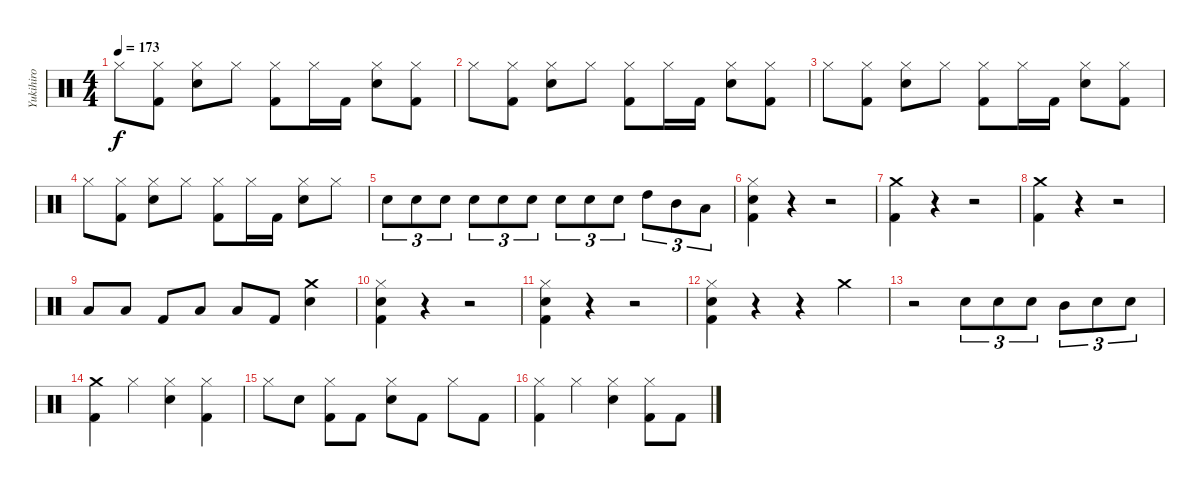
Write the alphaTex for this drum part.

\track ("Yukihiro" "Yukihiro") {instrument percussion}
\staff {score}
\articulation defaults
\ts (4 4)
\tempo 173
\clef neutral
\ks c "Hi-Hat (closed)".8{dy f}
("Hi-Hat (closed)" "Kick (hit) 2").8 ("Hi-Hat (closed)" "Snare (hit) 2").8 "Hi-Hat (closed)".8 ("Hi-Hat (closed)" "Kick (hit) 2").8 "Hi-Hat (closed)".16 "Kick (hit) 2".16 ("Hi-Hat (closed)" "Snare (hit) 2").8 ("Hi-Hat (closed)" "Kick (hit) 2").8 |
"Hi-Hat (closed)".8 ("Hi-Hat (closed)" "Kick (hit) 2").8 ("Hi-Hat (closed)" "Snare (hit) 2").8 "Hi-Hat (closed)".8 ("Hi-Hat (closed)" "Kick (hit) 2").8 "Hi-Hat (closed)".16 "Kick (hit) 2".16 ("Hi-Hat (closed)" "Snare (hit) 2").8 ("Hi-Hat (closed)" "Kick (hit) 2").8 |
"Hi-Hat (closed)".8 ("Hi-Hat (closed)" "Kick (hit) 2").8 ("Hi-Hat (closed)" "Snare (hit) 2").8 "Hi-Hat (closed)".8 ("Hi-Hat (closed)" "Kick (hit) 2").8 "Hi-Hat (closed)".16 "Kick (hit) 2".16 ("Hi-Hat (closed)" "Snare (hit) 2").8 ("Hi-Hat (closed)" "Kick (hit) 2").8 |
"Hi-Hat (closed)".8 ("Hi-Hat (closed)" "Kick (hit) 2").8 ("Hi-Hat (closed)" "Snare (hit) 2").8 "Hi-Hat (closed)".8 ("Hi-Hat (closed)" "Kick (hit) 2").8 "Hi-Hat (closed)".16 "Kick (hit) 2".16 ("Hi-Hat (closed)" "Snare (hit) 2").8 "Hi-Hat (closed)".8 |
"Snare (hit) 2".8{tu (3 2)} "Snare (hit) 2".8{tu (3 2)} "Snare (hit) 2".8{tu (3 2)} "Snare (hit) 2".8{tu (3 2)} "Snare (hit) 2".8{tu (3 2)} "Snare (hit) 2".8{tu (3 2)} "Snare (hit) 2".8{tu (3 2)} "Snare (hit) 2".8{tu (3 2)} "Snare (hit) 2".8{tu (3 2)} "High Tom (hit)".8{tu (3 2)} "Mid Tom (hit)".8{tu (3 2)} "Low Floor Tom (hit)".8{tu (3 2)} |
("Hi-Hat (closed)" "Snare (hit) 2" "Kick (hit) 2").4 r.4 r.2 |
("Crash medium (hit)" "Kick (hit) 2").4 r.4 r.2 |
("Crash medium (hit)" "Kick (hit) 2").4 r.4 r.2 |
"Low Floor Tom (hit)".8 "Low Floor Tom (hit)".8 "Kick (hit) 2".8 "Low Floor Tom (hit)".8 "Low Floor Tom (hit)".8 "Kick (hit) 2".8 ("Crash medium (hit)" "Snare (hit) 2").4 |
("Hi-Hat (closed)" "Snare (hit) 2" "Kick (hit) 2").4 r.4 r.2 |
("Hi-Hat (closed)" "Snare (hit) 2" "Kick (hit) 2").4 r.4 r.2 |
("Hi-Hat (closed)" "Snare (hit) 2" "Kick (hit) 2").4 r.4 r.4 "Crash medium (hit)".4 |
r.2 "Snare (hit) 2".8{tu (3 2)} "Snare (hit) 2".8{tu (3 2)} "Snare (hit) 2".8{tu (3 2)} "Mid Tom (hit)".8{tu (3 2)} "Snare (hit) 2".8{tu (3 2)} "Snare (hit) 2".8{tu (3 2)} |
("Crash medium (hit)" "Kick (hit) 2").4 "Hi-Hat (closed)".4 ("Hi-Hat (closed)" "Snare (hit) 2").4 ("Hi-Hat (closed)" "Kick (hit) 2").4 |
"Hi-Hat (closed)".8 "Snare (hit) 2".8 ("Hi-Hat (closed)" "Kick (hit) 2").8 "Kick (hit) 2".8 ("Hi-Hat (closed)" "Snare (hit) 2").8 "Kick (hit) 2".8 "Hi-Hat (closed)".8 "Kick (hit) 2".8 |
("Hi-Hat (closed)" "Kick (hit) 2").4 "Hi-Hat (closed)".4 ("Hi-Hat (closed)" "Snare (hit) 2").4 ("Hi-Hat (closed)" "Kick (hit) 2").8 "Kick (hit) 2".8
